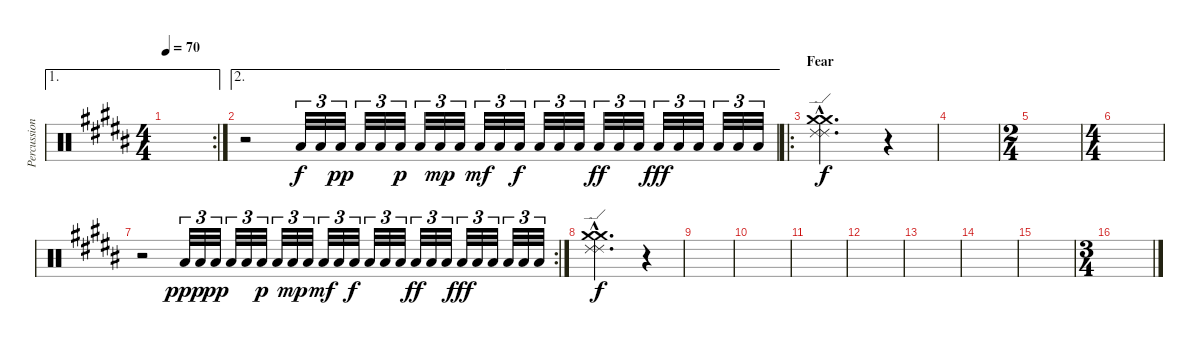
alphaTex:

\track ("Percussion" "Percussion") {instrument percussion}
\staff {score}
\articulation defaults
\ae 1
\rc 2
\ts (4 4)
\tempo 70
\clef neutral
\ks g#minor
|
\ae 2
r.2 "Low Floor Tom (hit)".32{tu (3 2)} "Low Floor Tom (hit)".32{tu (3 2)} "Low Floor Tom (hit)".32{tu (3 2) dy pp} "Low Floor Tom (hit)".32{tu (3 2)} "Low Floor Tom (hit)".32{tu (3 2)} "Low Floor Tom (hit)".32{tu (3 2) dy p} "Low Floor Tom (hit)".32{tu (3 2)} "Low Floor Tom (hit)".32{tu (3 2) dy mp} "Low Floor Tom (hit)".32{tu (3 2)} "Low Floor Tom (hit)".32{tu (3 2) dy mf} "Low Floor Tom (hit)".32{tu (3 2)} "Low Floor Tom (hit)".32{tu (3 2) dy f} "Low Floor Tom (hit)".32{tu (3 2)} "Low Floor Tom (hit)".32{tu (3 2)} "Low Floor Tom (hit)".32{tu (3 2)} "Low Floor Tom (hit)".32{tu (3 2) dy ff} "Low Floor Tom (hit)".32{tu (3 2)} "Low Floor Tom (hit)".32{tu (3 2)} "Low Floor Tom (hit)".32{tu (3 2) dy fff} "Low Floor Tom (hit)".32{tu (3 2)} "Low Floor Tom (hit)".32{tu (3 2)} "Low Floor Tom (hit)".32{tu (3 2)} "Low Floor Tom (hit)".32{tu (3 2)} "Low Floor Tom (hit)".32{tu (3 2)} |
\ro
\section ("" "Fear")
("Ride (edge) 2"{hac} "Crash medium (hit)"{hac} "Ride (edge) 2"{hac} "Crash medium (hit)"{hac}).2{d dy f} r.4 |
|
\ts (2 4)
|
\ts (4 4)
|
\rc 2
r.2 "Low Floor Tom (hit)".32{tu (3 2) dy ppp} "Low Floor Tom (hit)".32{tu (3 2)} "Low Floor Tom (hit)".32{tu (3 2) dy pp} "Low Floor Tom (hit)".32{tu (3 2)} "Low Floor Tom (hit)".32{tu (3 2)} "Low Floor Tom (hit)".32{tu (3 2) dy p} "Low Floor Tom (hit)".32{tu (3 2)} "Low Floor Tom (hit)".32{tu (3 2) dy mp} "Low Floor Tom (hit)".32{tu (3 2)} "Low Floor Tom (hit)".32{tu (3 2) dy mf} "Low Floor Tom (hit)".32{tu (3 2)} "Low Floor Tom (hit)".32{tu (3 2) dy f} "Low Floor Tom (hit)".32{tu (3 2)} "Low Floor Tom (hit)".32{tu (3 2)} "Low Floor Tom (hit)".32{tu (3 2)} "Low Floor Tom (hit)".32{tu (3 2) dy ff} "Low Floor Tom (hit)".32{tu (3 2)} "Low Floor Tom (hit)".32{tu (3 2)} "Low Floor Tom (hit)".32{tu (3 2) dy fff} "Low Floor Tom (hit)".32{tu (3 2)} "Low Floor Tom (hit)".32{tu (3 2)} "Low Floor Tom (hit)".32{tu (3 2)} "Low Floor Tom (hit)".32{tu (3 2)} "Low Floor Tom (hit)".32{tu (3 2)} |
("Ride (edge) 2"{hac} "Crash medium (hit)"{hac} "Ride (edge) 2"{hac} "Crash medium (hit)"{hac}).2{d dy f} r.4 |
|
|
|
|
|
|
|
\ts (3 4)
